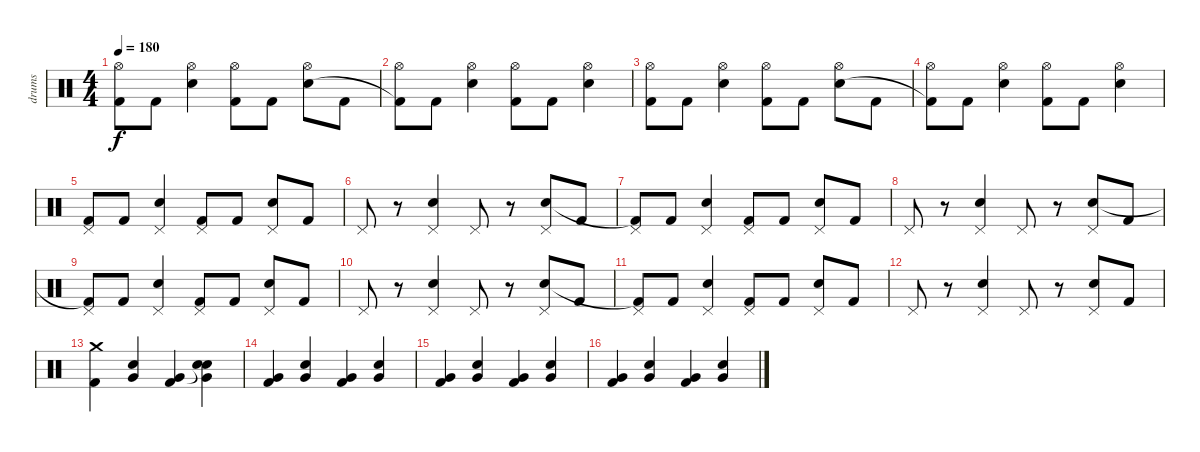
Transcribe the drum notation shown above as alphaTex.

\track ("drums" "drums") {instrument percussion}
\staff {score}
\articulation defaults
\ts (4 4)
\tempo 180
\clef neutral
\ks c
("Hi-Hat (open)" "Kick (hit) 2").8{dy f} "Kick (hit) 2".8 ("Hi-Hat (open)" "Electric Snare (hit)").4 ("Hi-Hat (open)" "Kick (hit) 2").8 "Kick (hit) 2".8 ("Hi-Hat (open)" "Electric Snare (hit)").8 "Kick (hit) 2".8 |
("Hi-Hat (open)" "Kick (hit) 2"{t}).8 "Kick (hit) 2".8 ("Hi-Hat (open)" "Electric Snare (hit)").4 ("Hi-Hat (open)" "Kick (hit) 2").8 "Kick (hit) 2".8 ("Hi-Hat (open)" "Electric Snare (hit)").4 |
("Hi-Hat (open)" "Kick (hit) 2").8 "Kick (hit) 2".8 ("Hi-Hat (open)" "Electric Snare (hit)").4 ("Hi-Hat (open)" "Kick (hit) 2").8 "Kick (hit) 2".8 ("Hi-Hat (open)" "Electric Snare (hit)").8 "Kick (hit) 2".8 |
("Hi-Hat (open)" "Kick (hit) 2"{t}).8 "Kick (hit) 2".8 ("Hi-Hat (open)" "Electric Snare (hit)").4 ("Hi-Hat (open)" "Kick (hit) 2").8 "Kick (hit) 2".8 ("Hi-Hat (open)" "Electric Snare (hit)").4 |
("Pedal Hi-Hat (hit)" "Kick (hit) 2").8 "Kick (hit) 2".8 ("Pedal Hi-Hat (hit)" "Electric Snare (hit)").4 ("Pedal Hi-Hat (hit)" "Kick (hit) 2").8 "Kick (hit) 2".8 ("Pedal Hi-Hat (hit)" "Electric Snare (hit)").8 "Kick (hit) 2".8 |
"Pedal Hi-Hat (hit)".8 r.8 ("Pedal Hi-Hat (hit)" "Electric Snare (hit)").4 "Pedal Hi-Hat (hit)".8 r.8 ("Pedal Hi-Hat (hit)" "Electric Snare (hit)").8 "Kick (hit) 2".8 |
("Pedal Hi-Hat (hit)" "Kick (hit) 2"{t}).8 "Kick (hit) 2".8 ("Pedal Hi-Hat (hit)" "Electric Snare (hit)").4 ("Pedal Hi-Hat (hit)" "Kick (hit) 2").8 "Kick (hit) 2".8 ("Pedal Hi-Hat (hit)" "Electric Snare (hit)").8 "Kick (hit) 2".8 |
"Pedal Hi-Hat (hit)".8 r.8 ("Pedal Hi-Hat (hit)" "Electric Snare (hit)").4 "Pedal Hi-Hat (hit)".8 r.8 ("Pedal Hi-Hat (hit)" "Electric Snare (hit)").8 "Kick (hit) 2".8 |
("Pedal Hi-Hat (hit)" "Kick (hit) 2"{t}).8 "Kick (hit) 2".8 ("Pedal Hi-Hat (hit)" "Electric Snare (hit)").4 ("Pedal Hi-Hat (hit)" "Kick (hit) 2").8 "Kick (hit) 2".8 ("Pedal Hi-Hat (hit)" "Electric Snare (hit)").8 "Kick (hit) 2".8 |
"Pedal Hi-Hat (hit)".8 r.8 ("Pedal Hi-Hat (hit)" "Electric Snare (hit)").4 "Pedal Hi-Hat (hit)".8 r.8 ("Pedal Hi-Hat (hit)" "Electric Snare (hit)").8 "Kick (hit) 2".8 |
("Pedal Hi-Hat (hit)" "Kick (hit) 2"{t}).8 "Kick (hit) 2".8 ("Pedal Hi-Hat (hit)" "Electric Snare (hit)").4 ("Pedal Hi-Hat (hit)" "Kick (hit) 2").8 "Kick (hit) 2".8 ("Pedal Hi-Hat (hit)" "Electric Snare (hit)").8 "Kick (hit) 2".8 |
"Pedal Hi-Hat (hit)".8 r.8 ("Pedal Hi-Hat (hit)" "Electric Snare (hit)").4 "Pedal Hi-Hat (hit)".8 r.8 ("Pedal Hi-Hat (hit)" "Electric Snare (hit)").8 "Kick (hit) 2".8 |
("Crash medium (hit)" "Kick (hit) 2").4 ("Very Low Tom (hit)" "Electric Snare (hit)").4 ("Very Low Tom (hit)" "Kick (hit) 2").4 ("Snare (hit)"{t} "Very Low Tom (hit)" "Electric Snare (hit)").4 |
("Very Low Tom (hit)" "Kick (hit) 2").4 ("Very Low Tom (hit)" "Electric Snare (hit)").4 ("Very Low Tom (hit)" "Kick (hit) 2").4 ("Very Low Tom (hit)" "Electric Snare (hit)").4 |
("Very Low Tom (hit)" "Kick (hit) 2").4 ("Very Low Tom (hit)" "Electric Snare (hit)").4 ("Very Low Tom (hit)" "Kick (hit) 2").4 ("Very Low Tom (hit)" "Electric Snare (hit)").4 |
("Very Low Tom (hit)" "Kick (hit) 2").4 ("Very Low Tom (hit)" "Electric Snare (hit)").4 ("Very Low Tom (hit)" "Kick (hit) 2").4 ("Very Low Tom (hit)" "Electric Snare (hit)").4
